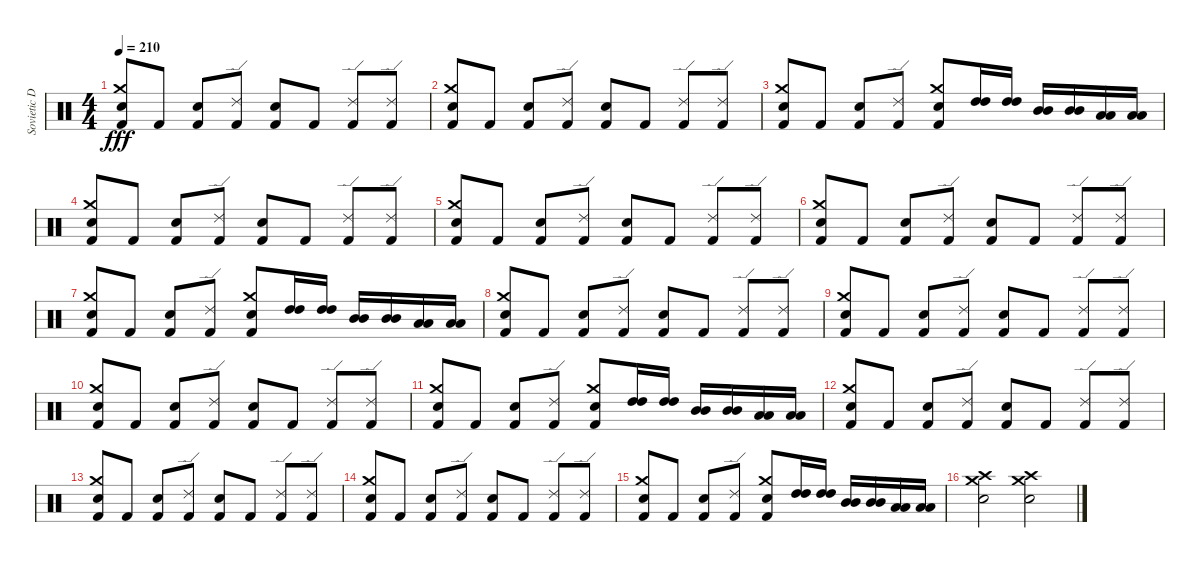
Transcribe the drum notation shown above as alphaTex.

\track ("Sovietic Drummer" "Sovietic D") {instrument percussion}
\staff {score}
\articulation defaults
\ts (4 4)
\tempo 210
\clef neutral
\ks c
("Electric Snare (hit)" "Crash medium (hit)" "Kick (hit) 2").8{dy fff} "Kick (hit) 2".8 ("Electric Snare (hit)" "Kick (hit) 2").8 ("Ride (edge) 2" "Kick (hit) 2").8 ("Electric Snare (hit)" "Kick (hit) 2").8 "Kick (hit) 2".8 ("Ride (edge) 2" "Kick (hit) 2").8 ("Ride (edge) 2" "Kick (hit) 2").8 |
("Electric Snare (hit)" "Crash medium (hit)" "Kick (hit) 2").8 "Kick (hit) 2".8 ("Electric Snare (hit)" "Kick (hit) 2").8 ("Ride (edge) 2" "Kick (hit) 2").8 ("Electric Snare (hit)" "Kick (hit) 2").8 "Kick (hit) 2".8 ("Ride (edge) 2" "Kick (hit) 2").8 ("Ride (edge) 2" "Kick (hit) 2").8 |
("Electric Snare (hit)" "Crash medium (hit)" "Kick (hit) 2").8 "Kick (hit) 2".8 ("Electric Snare (hit)" "Kick (hit) 2").8 ("Ride (edge) 2" "Kick (hit) 2").8 ("Crash medium (hit)" "Electric Snare (hit)" "Kick (hit) 2").8 ("High Tom (hit)" "High Tom (hit)").16 ("High Tom (hit)" "High Tom (hit)").16 ("Mid Tom (hit)" "Mid Tom (hit)").16 ("Mid Tom (hit)" "Mid Tom (hit)").16 ("Low Tom (hit)" "Low Tom (hit)").16 ("Low Tom (hit)" "Low Tom (hit)").16 |
("Electric Snare (hit)" "Crash medium (hit)" "Kick (hit) 2").8 "Kick (hit) 2".8 ("Electric Snare (hit)" "Kick (hit) 2").8 ("Ride (edge) 2" "Kick (hit) 2").8 ("Electric Snare (hit)" "Kick (hit) 2").8 "Kick (hit) 2".8 ("Ride (edge) 2" "Kick (hit) 2").8 ("Ride (edge) 2" "Kick (hit) 2").8 |
("Electric Snare (hit)" "Crash medium (hit)" "Kick (hit) 2").8 "Kick (hit) 2".8 ("Electric Snare (hit)" "Kick (hit) 2").8 ("Ride (edge) 2" "Kick (hit) 2").8 ("Electric Snare (hit)" "Kick (hit) 2").8 "Kick (hit) 2".8 ("Ride (edge) 2" "Kick (hit) 2").8 ("Ride (edge) 2" "Kick (hit) 2").8 |
("Electric Snare (hit)" "Crash medium (hit)" "Kick (hit) 2").8 "Kick (hit) 2".8 ("Electric Snare (hit)" "Kick (hit) 2").8 ("Ride (edge) 2" "Kick (hit) 2").8 ("Electric Snare (hit)" "Kick (hit) 2").8 "Kick (hit) 2".8 ("Ride (edge) 2" "Kick (hit) 2").8 ("Ride (edge) 2" "Kick (hit) 2").8 |
("Electric Snare (hit)" "Crash medium (hit)" "Kick (hit) 2").8 "Kick (hit) 2".8 ("Electric Snare (hit)" "Kick (hit) 2").8 ("Ride (edge) 2" "Kick (hit) 2").8 ("Crash medium (hit)" "Electric Snare (hit)" "Kick (hit) 2").8 ("High Tom (hit)" "High Tom (hit)").16 ("High Tom (hit)" "High Tom (hit)").16 ("Mid Tom (hit)" "Mid Tom (hit)").16 ("Mid Tom (hit)" "Mid Tom (hit)").16 ("Low Tom (hit)" "Low Tom (hit)").16 ("Low Tom (hit)" "Low Tom (hit)").16 |
("Electric Snare (hit)" "Crash medium (hit)" "Kick (hit) 2").8 "Kick (hit) 2".8 ("Electric Snare (hit)" "Kick (hit) 2").8 ("Ride (edge) 2" "Kick (hit) 2").8 ("Electric Snare (hit)" "Kick (hit) 2").8 "Kick (hit) 2".8 ("Ride (edge) 2" "Kick (hit) 2").8 ("Ride (edge) 2" "Kick (hit) 2").8 |
("Electric Snare (hit)" "Crash medium (hit)" "Kick (hit) 2").8 "Kick (hit) 2".8 ("Electric Snare (hit)" "Kick (hit) 2").8 ("Ride (edge) 2" "Kick (hit) 2").8 ("Electric Snare (hit)" "Kick (hit) 2").8 "Kick (hit) 2".8 ("Ride (edge) 2" "Kick (hit) 2").8 ("Ride (edge) 2" "Kick (hit) 2").8 |
("Electric Snare (hit)" "Crash medium (hit)" "Kick (hit) 2").8 "Kick (hit) 2".8 ("Electric Snare (hit)" "Kick (hit) 2").8 ("Ride (edge) 2" "Kick (hit) 2").8 ("Electric Snare (hit)" "Kick (hit) 2").8 "Kick (hit) 2".8 ("Ride (edge) 2" "Kick (hit) 2").8 ("Ride (edge) 2" "Kick (hit) 2").8 |
("Electric Snare (hit)" "Crash medium (hit)" "Kick (hit) 2").8 "Kick (hit) 2".8 ("Electric Snare (hit)" "Kick (hit) 2").8 ("Ride (edge) 2" "Kick (hit) 2").8 ("Crash medium (hit)" "Electric Snare (hit)" "Kick (hit) 2").8 ("High Tom (hit)" "High Tom (hit)").16 ("High Tom (hit)" "High Tom (hit)").16 ("Mid Tom (hit)" "Mid Tom (hit)").16 ("Mid Tom (hit)" "Mid Tom (hit)").16 ("Low Tom (hit)" "Low Tom (hit)").16 ("Low Tom (hit)" "Low Tom (hit)").16 |
("Electric Snare (hit)" "Crash medium (hit)" "Kick (hit) 2").8 "Kick (hit) 2".8 ("Electric Snare (hit)" "Kick (hit) 2").8 ("Ride (edge) 2" "Kick (hit) 2").8 ("Electric Snare (hit)" "Kick (hit) 2").8 "Kick (hit) 2".8 ("Ride (edge) 2" "Kick (hit) 2").8 ("Ride (edge) 2" "Kick (hit) 2").8 |
("Electric Snare (hit)" "Crash medium (hit)" "Kick (hit) 2").8 "Kick (hit) 2".8 ("Electric Snare (hit)" "Kick (hit) 2").8 ("Ride (edge) 2" "Kick (hit) 2").8 ("Electric Snare (hit)" "Kick (hit) 2").8 "Kick (hit) 2".8 ("Ride (edge) 2" "Kick (hit) 2").8 ("Ride (edge) 2" "Kick (hit) 2").8 |
("Electric Snare (hit)" "Crash medium (hit)" "Kick (hit) 2").8 "Kick (hit) 2".8 ("Electric Snare (hit)" "Kick (hit) 2").8 ("Ride (edge) 2" "Kick (hit) 2").8 ("Electric Snare (hit)" "Kick (hit) 2").8 "Kick (hit) 2".8 ("Ride (edge) 2" "Kick (hit) 2").8 ("Ride (edge) 2" "Kick (hit) 2").8 |
("Electric Snare (hit)" "Crash medium (hit)" "Kick (hit) 2").8 "Kick (hit) 2".8 ("Electric Snare (hit)" "Kick (hit) 2").8 ("Ride (edge) 2" "Kick (hit) 2").8 ("Crash medium (hit)" "Electric Snare (hit)" "Kick (hit) 2").8 ("High Tom (hit)" "High Tom (hit)").16 ("High Tom (hit)" "High Tom (hit)").16 ("Mid Tom (hit)" "Mid Tom (hit)").16 ("Mid Tom (hit)" "Mid Tom (hit)").16 ("Low Tom (hit)" "Low Tom (hit)").16 ("Low Tom (hit)" "Low Tom (hit)").16 |
("Crash high (hit)" "Electric Snare (hit)" "Crash medium (hit)").2 ("Crash high (hit)" "Electric Snare (hit)" "Crash medium (hit)").2
